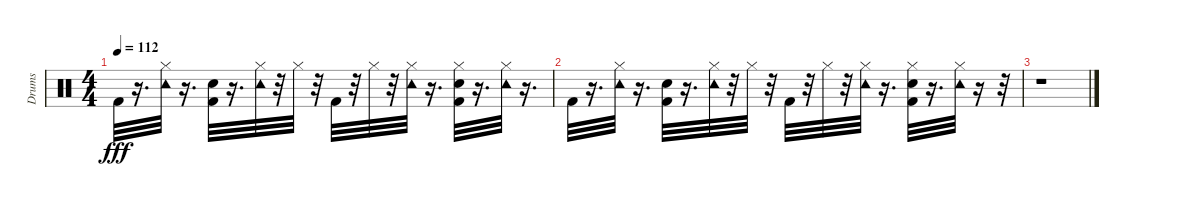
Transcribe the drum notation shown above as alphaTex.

\track ("Drums" "Drums") {instrument percussion}
\staff {score}
\articulation defaults
\ts (4 4)
\tempo 112
\clef neutral
\ks c "Kick (hit) 2".32{dy fff}
r.16{d} ("Tambourine (hit)" "Hi-Hat (closed)").32 r.16{d} ("Snare (hit) 2" "Kick (hit) 2").32 r.16{d} ("Tambourine (hit)" "Hi-Hat (closed)").32 r.32 "Hi-Hat (closed)".32 r.32 "Kick (hit) 2".32 r.32 "Hi-Hat (closed)".32 r.32 ("Tambourine (hit)" "Hi-Hat (closed)").32 r.16{d} ("Snare (hit) 2" "Hi-Hat (closed)" "Kick (hit) 2").32 r.16{d} ("Tambourine (hit)" "Hi-Hat (closed)").32 r.16{d} |
"Kick (hit) 2".32 r.16{d} ("Tambourine (hit)" "Hi-Hat (closed)").32 r.16{d} ("Snare (hit) 2" "Kick (hit) 2").32 r.16{d} ("Tambourine (hit)" "Hi-Hat (closed)").32 r.32 "Hi-Hat (closed)".32 r.32 "Kick (hit) 2".32 r.32 "Hi-Hat (closed)".32 r.32 ("Tambourine (hit)" "Hi-Hat (closed)").32 r.16{d} ("Snare (hit) 2" "Hi-Hat (closed)" "Kick (hit) 2").32 r.16{d} ("Tambourine (hit)" "Hi-Hat (closed)").32 r.16 r.32 |
r.1
